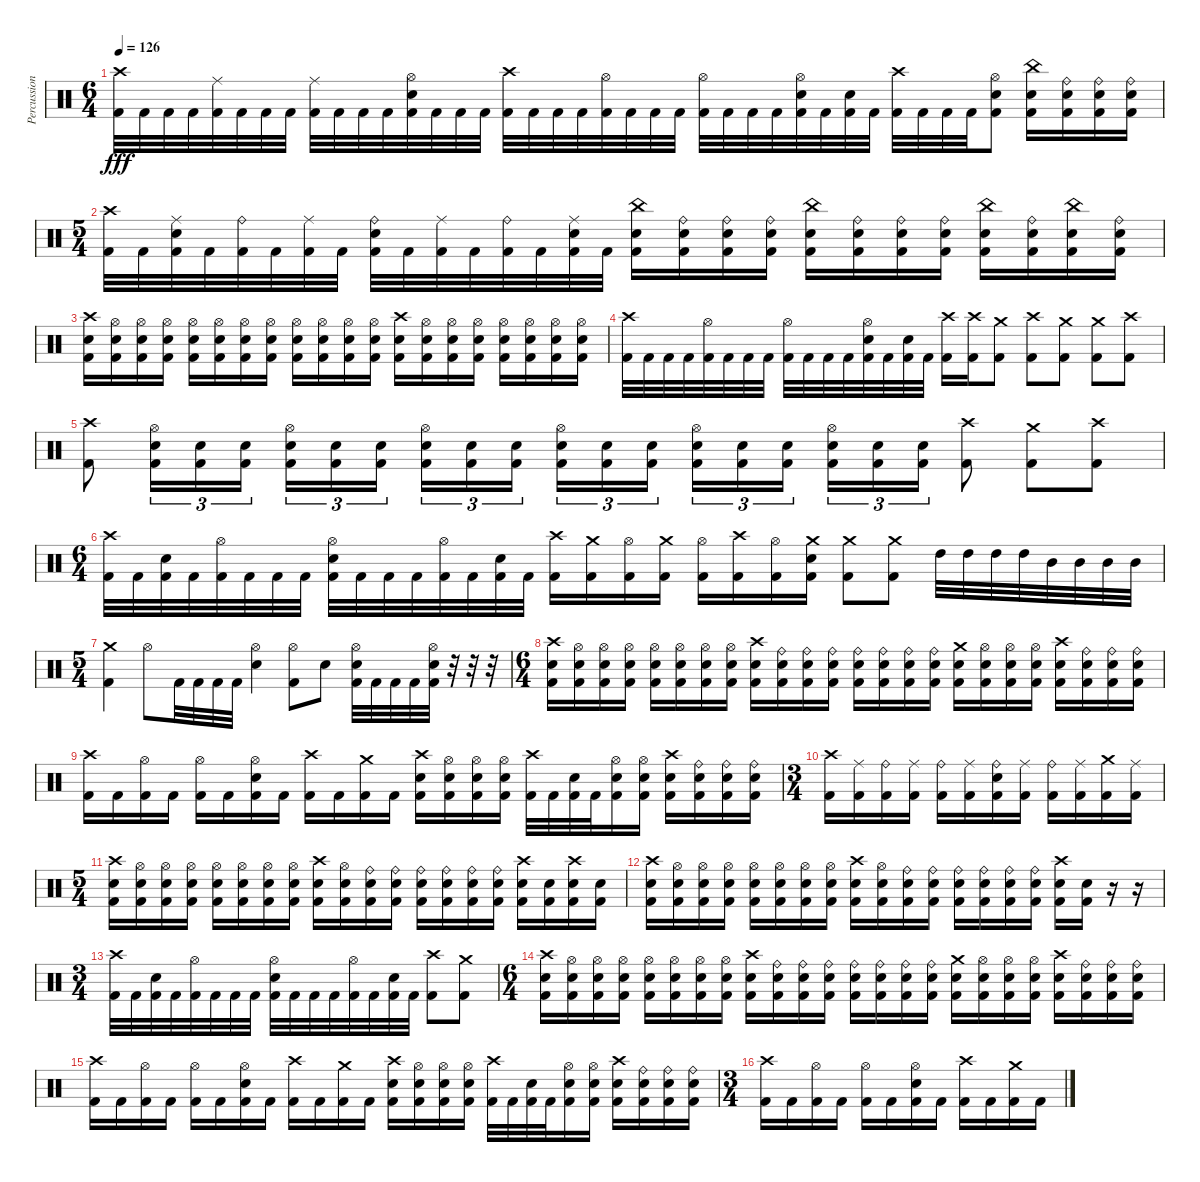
\track ("Percussion" "Percussion") {instrument percussion}
\staff {score}
\articulation defaults
\ts (6 4)
\tempo 126
\clef neutral
\ks c
("Crash high (hit)" "Kick (hit) 2").32{dy fff} "Kick (hit) 2".32 "Kick (hit) 2".32 "Kick (hit) 2".32 ("Ride (middle)" "Kick (hit) 2").32 "Kick (hit) 2".32 "Kick (hit) 2".32 "Kick (hit) 2".32 ("Ride (middle)" "Kick (hit) 2").32 "Kick (hit) 2".32 "Kick (hit) 2".32 "Kick (hit) 2".32 ("Electric Snare (hit)" "Hi-Hat (open)" "Kick (hit) 2").32 "Kick (hit) 2".32 "Kick (hit) 2".32 "Kick (hit) 2".32 ("Crash high (hit)" "Kick (hit) 2").32 "Kick (hit) 2".32 "Kick (hit) 2".32 "Kick (hit) 2".32 ("Hi-Hat (open)" "Kick (hit) 2").32 "Kick (hit) 2".32 "Kick (hit) 2".32 "Kick (hit) 2".32 ("Hi-Hat (open)" "Kick (hit) 2").32 "Kick (hit) 2".32 "Kick (hit) 2".32 "Kick (hit) 2".32 ("Electric Snare (hit)" "Hi-Hat (open)" "Kick (hit) 2").32 "Kick (hit) 2".32 ("Electric Snare (hit)" "Kick (hit) 2").32 "Kick (hit) 2".32 ("Crash high (hit)" "Kick (hit) 2").32 "Kick (hit) 2".32 "Kick (hit) 2".32 "Kick (hit) 2".32 ("Electric Snare (hit)" "Hi-Hat (open)" "Kick (hit) 2").8 ("Electric Snare (hit)" "China (hit)" "Kick (hit) 2").16 ("Electric Snare (hit)" "Ride (bell)" "Kick (hit) 2").16 ("Electric Snare (hit)" "Ride (bell)" "Kick (hit) 2").16 ("Electric Snare (hit)" "Ride (bell)" "Kick (hit) 2").16 |
\ts (5 4)
("Crash high (hit)" "Kick (hit) 2").32 "Kick (hit) 2".32 ("Electric Snare (hit)" "Ride (middle)" "Kick (hit) 2").32 "Kick (hit) 2".32 ("Ride (bell)" "Kick (hit) 2").32 "Kick (hit) 2".32 ("Ride (middle)" "Kick (hit) 2").32 "Kick (hit) 2".32 ("Electric Snare (hit)" "Ride (bell)" "Kick (hit) 2").32 "Kick (hit) 2".32 ("Ride (middle)" "Kick (hit) 2").32 "Kick (hit) 2".32 ("Ride (bell)" "Kick (hit) 2").32 "Kick (hit) 2".32 ("Electric Snare (hit)" "Ride (middle)" "Kick (hit) 2").32 "Kick (hit) 2".32 ("Electric Snare (hit)" "China (hit)" "Kick (hit) 2").16 ("Electric Snare (hit)" "Ride (bell)" "Kick (hit) 2").16 ("Electric Snare (hit)" "Ride (bell)" "Kick (hit) 2").16 ("Electric Snare (hit)" "Ride (bell)" "Kick (hit) 2").16 ("Electric Snare (hit)" "China (hit)" "Kick (hit) 2").16 ("Electric Snare (hit)" "Ride (bell)" "Kick (hit) 2").16 ("Electric Snare (hit)" "Ride (bell)" "Kick (hit) 2").16 ("Electric Snare (hit)" "Ride (bell)" "Kick (hit) 2").16 ("Electric Snare (hit)" "China (hit)" "Kick (hit) 2").16 ("Electric Snare (hit)" "Ride (bell)" "Kick (hit) 2").16 ("Electric Snare (hit)" "China (hit)" "Kick (hit) 2").16 ("Electric Snare (hit)" "Ride (bell)" "Kick (hit) 2").16 |
("Electric Snare (hit)" "Crash high (hit)" "Kick (hit) 2").16 ("Electric Snare (hit)" "Hi-Hat (open)" "Kick (hit) 2").16 ("Electric Snare (hit)" "Hi-Hat (open)" "Kick (hit) 2").16 ("Electric Snare (hit)" "Hi-Hat (open)" "Kick (hit) 2").16 ("Electric Snare (hit)" "Hi-Hat (open)" "Kick (hit) 2").16 ("Electric Snare (hit)" "Hi-Hat (open)" "Kick (hit) 2").16 ("Electric Snare (hit)" "Hi-Hat (open)" "Kick (hit) 2").16 ("Electric Snare (hit)" "Hi-Hat (open)" "Kick (hit) 2").16 ("Electric Snare (hit)" "Hi-Hat (open)" "Kick (hit) 2").16 ("Electric Snare (hit)" "Hi-Hat (open)" "Kick (hit) 2").16 ("Electric Snare (hit)" "Hi-Hat (open)" "Kick (hit) 2").16 ("Electric Snare (hit)" "Hi-Hat (open)" "Kick (hit) 2").16 ("Electric Snare (hit)" "Crash high (hit)" "Kick (hit) 2").16 ("Electric Snare (hit)" "Hi-Hat (open)" "Kick (hit) 2").16 ("Electric Snare (hit)" "Hi-Hat (open)" "Kick (hit) 2").16 ("Electric Snare (hit)" "Hi-Hat (open)" "Kick (hit) 2").16 ("Electric Snare (hit)" "Hi-Hat (open)" "Kick (hit) 2").16 ("Electric Snare (hit)" "Hi-Hat (open)" "Kick (hit) 2").16 ("Electric Snare (hit)" "Hi-Hat (open)" "Kick (hit) 2").16 ("Electric Snare (hit)" "Hi-Hat (open)" "Kick (hit) 2").16 |
("Crash high (hit)" "Kick (hit) 2").32 "Kick (hit) 2".32 "Kick (hit) 2".32 "Kick (hit) 2".32 ("Hi-Hat (open)" "Kick (hit) 2").32 "Kick (hit) 2".32 "Kick (hit) 2".32 "Kick (hit) 2".32 ("Hi-Hat (open)" "Kick (hit) 2").32 "Kick (hit) 2".32 "Kick (hit) 2".32 "Kick (hit) 2".32 ("Electric Snare (hit)" "Hi-Hat (open)" "Kick (hit) 2").32 "Kick (hit) 2".32 ("Electric Snare (hit)" "Kick (hit) 2").32 "Kick (hit) 2".32 ("Crash high (hit)" "Kick (hit) 2").16 ("Crash high (hit)" "Kick (hit) 2").16 ("Crash medium (hit)" "Kick (hit) 2").8 ("Crash high (hit)" "Kick (hit) 2").8 ("Crash medium (hit)" "Kick (hit) 2").8 ("Crash medium (hit)" "Kick (hit) 2").8 ("Crash high (hit)" "Kick (hit) 2").8 |
("Kick (hit) 2" "Crash high (hit)").8 ("Hi-Hat (open)" "Kick (hit) 2" "Electric Snare (hit)").16{tu (3 2)} ("Kick (hit) 2" "Electric Snare (hit)").16{tu (3 2)} ("Kick (hit) 2" "Electric Snare (hit)").16{tu (3 2)} ("Hi-Hat (open)" "Kick (hit) 2" "Electric Snare (hit)").16{tu (3 2)} ("Kick (hit) 2" "Electric Snare (hit)").16{tu (3 2)} ("Kick (hit) 2" "Electric Snare (hit)").16{tu (3 2) beam splitsecondary} ("Hi-Hat (open)" "Kick (hit) 2" "Electric Snare (hit)").16{tu (3 2)} ("Kick (hit) 2" "Electric Snare (hit)").16{tu (3 2)} ("Kick (hit) 2" "Electric Snare (hit)").16{tu (3 2)} ("Hi-Hat (open)" "Kick (hit) 2" "Electric Snare (hit)").16{tu (3 2)} ("Kick (hit) 2" "Electric Snare (hit)").16{tu (3 2)} ("Kick (hit) 2" "Electric Snare (hit)").16{tu (3 2) beam splitsecondary} ("Hi-Hat (open)" "Kick (hit) 2" "Electric Snare (hit)").16{tu (3 2)} ("Kick (hit) 2" "Electric Snare (hit)").16{tu (3 2)} ("Kick (hit) 2" "Electric Snare (hit)").16{tu (3 2)} ("Hi-Hat (open)" "Kick (hit) 2" "Electric Snare (hit)").16{tu (3 2)} ("Kick (hit) 2" "Electric Snare (hit)").16{tu (3 2)} ("Kick (hit) 2" "Electric Snare (hit)").16{tu (3 2)} ("Crash high (hit)" "Kick (hit) 2").8 ("Crash medium (hit)" "Kick (hit) 2").8 ("Crash high (hit)" "Kick (hit) 2").8 |
\ts (6 4)
("Crash high (hit)" "Kick (hit) 2").32 "Kick (hit) 2".32 ("Electric Snare (hit)" "Kick (hit) 2").32 "Kick (hit) 2".32 ("Hi-Hat (open)" "Kick (hit) 2").32 "Kick (hit) 2".32 "Kick (hit) 2".32 "Kick (hit) 2".32 ("Electric Snare (hit)" "Hi-Hat (open)" "Kick (hit) 2").32 "Kick (hit) 2".32 "Kick (hit) 2".32 "Kick (hit) 2".32 ("Hi-Hat (open)" "Kick (hit) 2").32 "Kick (hit) 2".32 ("Electric Snare (hit)" "Kick (hit) 2").32 "Kick (hit) 2".32 ("Crash high (hit)" "Kick (hit) 2").16 ("Crash medium (hit)" "Kick (hit) 2").16 ("Hi-Hat (open)" "Kick (hit) 2").16 ("Crash medium (hit)" "Kick (hit) 2").16 ("Hi-Hat (open)" "Kick (hit) 2").16 ("Crash high (hit)" "Kick (hit) 2").16 ("Hi-Hat (open)" "Kick (hit) 2").16 ("Electric Snare (hit)" "Crash medium (hit)" "Kick (hit) 2").16 ("Crash medium (hit)" "Kick (hit) 2").8 ("Crash medium (hit)" "Kick (hit) 2").8 "High Tom (hit)".32 "High Tom (hit)".32 "High Tom (hit)".32 "High Tom (hit)".32 "Mid Tom (hit)".32 "Mid Tom (hit)".32 "Mid Tom (hit)".32 "Mid Tom (hit)".32 |
\ts (5 4)
("Kick (hit) 2" "Crash medium (hit)").4 "Hi-Hat (open)".8 "Kick (hit) 2".32 "Kick (hit) 2".32 "Kick (hit) 2".32 "Kick (hit) 2".32 ("Electric Snare (hit)" "Hi-Hat (open)").4 ("Kick (hit) 2" "Hi-Hat (open)").8 "Electric Snare (hit)".8 ("Electric Snare (hit)" "Hi-Hat (open)" "Kick (hit) 2").32 "Kick (hit) 2".32 "Kick (hit) 2".32 "Kick (hit) 2".32 ("Electric Snare (hit)" "Hi-Hat (open)" "Kick (hit) 2").32 r.32 r.32 r.32 |
\ts (6 4)
("Electric Snare (hit)" "Crash high (hit)" "Kick (hit) 2").16 ("Electric Snare (hit)" "Hi-Hat (open)" "Kick (hit) 2").16 ("Electric Snare (hit)" "Hi-Hat (open)" "Kick (hit) 2").16 ("Electric Snare (hit)" "Hi-Hat (open)" "Kick (hit) 2").16 ("Electric Snare (hit)" "Hi-Hat (open)" "Kick (hit) 2").16 ("Electric Snare (hit)" "Hi-Hat (open)" "Kick (hit) 2").16 ("Electric Snare (hit)" "Hi-Hat (open)" "Kick (hit) 2").16 ("Electric Snare (hit)" "Hi-Hat (open)" "Kick (hit) 2").16 ("Electric Snare (hit)" "Crash high (hit)" "Kick (hit) 2").16 ("Electric Snare (hit)" "Ride (bell)" "Kick (hit) 2").16 ("Electric Snare (hit)" "Ride (bell)" "Kick (hit) 2").16 ("Electric Snare (hit)" "Ride (bell)" "Kick (hit) 2").16 ("Electric Snare (hit)" "Ride (bell)" "Kick (hit) 2").16 ("Electric Snare (hit)" "Ride (bell)" "Kick (hit) 2").16 ("Electric Snare (hit)" "Ride (bell)" "Kick (hit) 2").16 ("Electric Snare (hit)" "Ride (bell)" "Kick (hit) 2").16 ("Electric Snare (hit)" "Crash medium (hit)" "Kick (hit) 2").16 ("Electric Snare (hit)" "Hi-Hat (open)" "Kick (hit) 2").16 ("Electric Snare (hit)" "Hi-Hat (open)" "Kick (hit) 2").16 ("Electric Snare (hit)" "Hi-Hat (open)" "Kick (hit) 2").16 ("Electric Snare (hit)" "Crash high (hit)" "Kick (hit) 2").16 ("Electric Snare (hit)" "Ride (bell)" "Kick (hit) 2").16 ("Electric Snare (hit)" "Ride (bell)" "Kick (hit) 2").16 ("Electric Snare (hit)" "Ride (bell)" "Kick (hit) 2").16 |
("Crash high (hit)" "Kick (hit) 2").16 "Kick (hit) 2".16 ("Hi-Hat (open)" "Kick (hit) 2").16 "Kick (hit) 2".16 ("Hi-Hat (open)" "Kick (hit) 2").16 "Kick (hit) 2".16 ("Electric Snare (hit)" "Hi-Hat (open)" "Kick (hit) 2").16 "Kick (hit) 2".16 ("Crash high (hit)" "Kick (hit) 2").16 "Kick (hit) 2".16 ("Crash medium (hit)" "Kick (hit) 2").16 "Kick (hit) 2".16 ("Electric Snare (hit)" "Crash high (hit)" "Kick (hit) 2").16 ("Electric Snare (hit)" "Hi-Hat (open)" "Kick (hit) 2").16 ("Electric Snare (hit)" "Hi-Hat (open)" "Kick (hit) 2").16 ("Electric Snare (hit)" "Hi-Hat (open)" "Kick (hit) 2").16 ("Crash high (hit)" "Kick (hit) 2").32 "Kick (hit) 2".32 ("Electric Snare (hit)" "Kick (hit) 2").32 "Kick (hit) 2".32 ("Electric Snare (hit)" "Hi-Hat (open)" "Kick (hit) 2").16 ("Electric Snare (hit)" "Hi-Hat (open)" "Kick (hit) 2").16 ("Electric Snare (hit)" "Crash high (hit)" "Kick (hit) 2").16 ("Electric Snare (hit)" "Ride (bell)" "Kick (hit) 2").16 ("Electric Snare (hit)" "Ride (bell)" "Kick (hit) 2").16 ("Electric Snare (hit)" "Ride (bell)" "Kick (hit) 2").16 |
\ts (3 4)
("Crash high (hit)" "Kick (hit) 2").16 ("Ride (middle)" "Kick (hit) 2").16 ("Ride (bell)" "Kick (hit) 2").16 ("Ride (middle)" "Kick (hit) 2").16 ("Ride (bell)" "Kick (hit) 2").16 ("Ride (middle)" "Kick (hit) 2").16 ("Electric Snare (hit)" "Ride (bell)" "Kick (hit) 2").16 ("Ride (middle)" "Kick (hit) 2").16 ("Ride (bell)" "Kick (hit) 2").16 ("Ride (middle)" "Kick (hit) 2").16 ("Crash medium (hit)" "Kick (hit) 2").16 ("Ride (middle)" "Kick (hit) 2").16 |
\ts (5 4)
("Electric Snare (hit)" "Crash high (hit)" "Kick (hit) 2").16 ("Electric Snare (hit)" "Hi-Hat (open)" "Kick (hit) 2").16 ("Electric Snare (hit)" "Hi-Hat (open)" "Kick (hit) 2").16 ("Electric Snare (hit)" "Hi-Hat (open)" "Kick (hit) 2").16 ("Electric Snare (hit)" "Hi-Hat (open)" "Kick (hit) 2").16 ("Electric Snare (hit)" "Hi-Hat (open)" "Kick (hit) 2").16 ("Electric Snare (hit)" "Hi-Hat (open)" "Kick (hit) 2").16 ("Electric Snare (hit)" "Hi-Hat (open)" "Kick (hit) 2").16 ("Electric Snare (hit)" "Crash high (hit)" "Kick (hit) 2").16 ("Electric Snare (hit)" "Hi-Hat (open)" "Kick (hit) 2").16 ("Electric Snare (hit)" "Ride (bell)" "Kick (hit) 2").16 ("Electric Snare (hit)" "Ride (bell)" "Kick (hit) 2").16 ("Electric Snare (hit)" "Ride (bell)" "Kick (hit) 2").16 ("Electric Snare (hit)" "Ride (bell)" "Kick (hit) 2").16 ("Electric Snare (hit)" "Ride (bell)" "Kick (hit) 2").16 ("Electric Snare (hit)" "Ride (bell)" "Kick (hit) 2").16 ("Electric Snare (hit)" "Crash high (hit)" "Kick (hit) 2").16 ("Electric Snare (hit)" "Kick (hit) 2").16 ("Electric Snare (hit)" "Crash high (hit)" "Kick (hit) 2").16 ("Electric Snare (hit)" "Kick (hit) 2").16 |
("Electric Snare (hit)" "Crash high (hit)" "Kick (hit) 2").16 ("Electric Snare (hit)" "Hi-Hat (open)" "Kick (hit) 2").16 ("Electric Snare (hit)" "Hi-Hat (open)" "Kick (hit) 2").16 ("Electric Snare (hit)" "Hi-Hat (open)" "Kick (hit) 2").16 ("Electric Snare (hit)" "Hi-Hat (open)" "Kick (hit) 2").16 ("Electric Snare (hit)" "Hi-Hat (open)" "Kick (hit) 2").16 ("Electric Snare (hit)" "Hi-Hat (open)" "Kick (hit) 2").16 ("Electric Snare (hit)" "Hi-Hat (open)" "Kick (hit) 2").16 ("Electric Snare (hit)" "Crash high (hit)" "Kick (hit) 2").16 ("Electric Snare (hit)" "Hi-Hat (open)" "Kick (hit) 2").16 ("Electric Snare (hit)" "Ride (bell)" "Kick (hit) 2").16 ("Electric Snare (hit)" "Ride (bell)" "Kick (hit) 2").16 ("Electric Snare (hit)" "Ride (bell)" "Kick (hit) 2").16 ("Electric Snare (hit)" "Ride (bell)" "Kick (hit) 2").16 ("Electric Snare (hit)" "Ride (bell)" "Kick (hit) 2").16 ("Electric Snare (hit)" "Ride (bell)" "Kick (hit) 2").16 ("Electric Snare (hit)" "Crash high (hit)" "Kick (hit) 2").16 ("Electric Snare (hit)" "Kick (hit) 2").16 r.16 r.16 |
\ts (3 4)
("Crash high (hit)" "Kick (hit) 2").32 "Kick (hit) 2".32 ("Electric Snare (hit)" "Kick (hit) 2").32 "Kick (hit) 2".32 ("Hi-Hat (open)" "Kick (hit) 2").32 "Kick (hit) 2".32 "Kick (hit) 2".32 "Kick (hit) 2".32 ("Electric Snare (hit)" "Hi-Hat (open)" "Kick (hit) 2").32 "Kick (hit) 2".32 "Kick (hit) 2".32 "Kick (hit) 2".32 ("Hi-Hat (open)" "Kick (hit) 2").32 "Kick (hit) 2".32 ("Electric Snare (hit)" "Kick (hit) 2").32 "Kick (hit) 2".32 ("Crash high (hit)" "Kick (hit) 2").8 ("Crash medium (hit)" "Kick (hit) 2").8 |
\ts (6 4)
("Electric Snare (hit)" "Crash high (hit)" "Kick (hit) 2").16 ("Electric Snare (hit)" "Hi-Hat (open)" "Kick (hit) 2").16 ("Electric Snare (hit)" "Hi-Hat (open)" "Kick (hit) 2").16 ("Electric Snare (hit)" "Hi-Hat (open)" "Kick (hit) 2").16 ("Electric Snare (hit)" "Hi-Hat (open)" "Kick (hit) 2").16 ("Electric Snare (hit)" "Hi-Hat (open)" "Kick (hit) 2").16 ("Electric Snare (hit)" "Hi-Hat (open)" "Kick (hit) 2").16 ("Electric Snare (hit)" "Hi-Hat (open)" "Kick (hit) 2").16 ("Electric Snare (hit)" "Crash high (hit)" "Kick (hit) 2").16 ("Electric Snare (hit)" "Ride (bell)" "Kick (hit) 2").16 ("Electric Snare (hit)" "Ride (bell)" "Kick (hit) 2").16 ("Electric Snare (hit)" "Ride (bell)" "Kick (hit) 2").16 ("Electric Snare (hit)" "Ride (bell)" "Kick (hit) 2").16 ("Electric Snare (hit)" "Ride (bell)" "Kick (hit) 2").16 ("Electric Snare (hit)" "Ride (bell)" "Kick (hit) 2").16 ("Electric Snare (hit)" "Ride (bell)" "Kick (hit) 2").16 ("Electric Snare (hit)" "Crash medium (hit)" "Kick (hit) 2").16 ("Electric Snare (hit)" "Hi-Hat (open)" "Kick (hit) 2").16 ("Electric Snare (hit)" "Hi-Hat (open)" "Kick (hit) 2").16 ("Electric Snare (hit)" "Hi-Hat (open)" "Kick (hit) 2").16 ("Electric Snare (hit)" "Crash high (hit)" "Kick (hit) 2").16 ("Electric Snare (hit)" "Ride (bell)" "Kick (hit) 2").16 ("Electric Snare (hit)" "Ride (bell)" "Kick (hit) 2").16 ("Electric Snare (hit)" "Ride (bell)" "Kick (hit) 2").16 |
("Crash high (hit)" "Kick (hit) 2").16 "Kick (hit) 2".16 ("Hi-Hat (open)" "Kick (hit) 2").16 "Kick (hit) 2".16 ("Hi-Hat (open)" "Kick (hit) 2").16 "Kick (hit) 2".16 ("Electric Snare (hit)" "Hi-Hat (open)" "Kick (hit) 2").16 "Kick (hit) 2".16 ("Crash high (hit)" "Kick (hit) 2").16 "Kick (hit) 2".16 ("Crash medium (hit)" "Kick (hit) 2").16 "Kick (hit) 2".16 ("Electric Snare (hit)" "Crash high (hit)" "Kick (hit) 2").16 ("Electric Snare (hit)" "Hi-Hat (open)" "Kick (hit) 2").16 ("Electric Snare (hit)" "Hi-Hat (open)" "Kick (hit) 2").16 ("Electric Snare (hit)" "Hi-Hat (open)" "Kick (hit) 2").16 ("Crash high (hit)" "Kick (hit) 2").32 "Kick (hit) 2".32 ("Electric Snare (hit)" "Kick (hit) 2").32 "Kick (hit) 2".32 ("Electric Snare (hit)" "Hi-Hat (open)" "Kick (hit) 2").16 ("Electric Snare (hit)" "Hi-Hat (open)" "Kick (hit) 2").16 ("Electric Snare (hit)" "Crash high (hit)" "Kick (hit) 2").16 ("Electric Snare (hit)" "Ride (bell)" "Kick (hit) 2").16 ("Electric Snare (hit)" "Ride (bell)" "Kick (hit) 2").16 ("Electric Snare (hit)" "Ride (bell)" "Kick (hit) 2").16 |
\ts (3 4)
("Crash high (hit)" "Kick (hit) 2").16 "Kick (hit) 2".16 ("Hi-Hat (open)" "Kick (hit) 2").16 "Kick (hit) 2".16 ("Hi-Hat (open)" "Kick (hit) 2").16 "Kick (hit) 2".16 ("Electric Snare (hit)" "Hi-Hat (open)" "Kick (hit) 2").16 "Kick (hit) 2".16 ("Crash high (hit)" "Kick (hit) 2").16 "Kick (hit) 2".16 ("Crash medium (hit)" "Kick (hit) 2").16 "Kick (hit) 2".16
